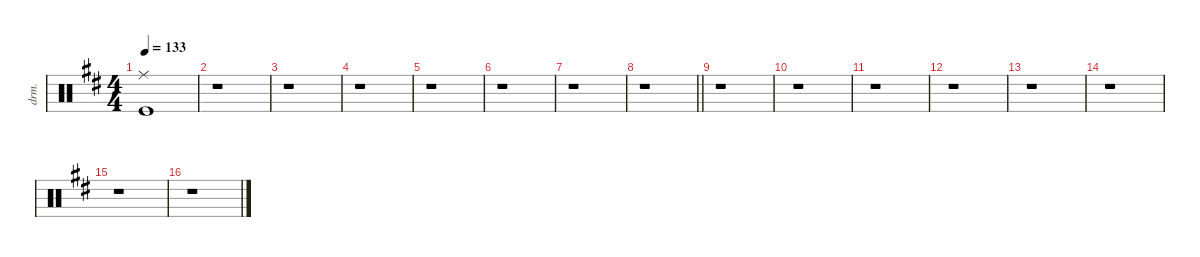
\defaultSystemsLayout 4
\hideDynamics
\bracketExtendMode nobrackets
\otherSystemsTrackNameOrientation horizontal
\track ("Drums" "drm.") {defaultSystemsLayout 4 instrument percussion}
\staff {score}
\articulation defaults
\ts (4 4)
\beaming (8 2 2 2 2)
\tempo 133
\clef neutral
\ks bminor
("Ride (middle)"{acc forcenatural} "Kick (hit)"{acc forcenatural}).1{dy fff beam Down} |
r.1{beam Down} |
r.1{beam Down} |
r.1{beam Down} |
r.1{beam Down} |
r.1{beam Down} |
r.1{beam Down} |
\barLineRight lightlight
r.1{beam Down} |
r.1{beam Down} |
r.1{beam Down} |
r.1{beam Down} |
r.1{beam Down} |
r.1{beam Down} |
r.1{beam Down} |
r.1{beam Down} |
r.1{beam Down}
